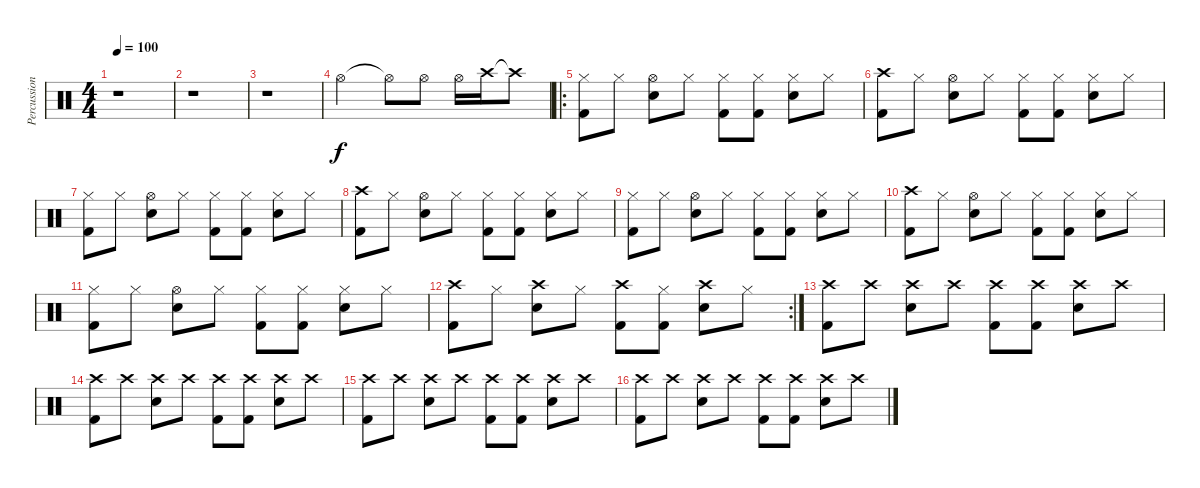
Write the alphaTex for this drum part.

\track ("Percussions" "Percussion") {instrument percussion}
\staff {score}
\articulation defaults
\ts (4 4)
\tempo 100
\clef neutral
\ks c
r.1{dy f} |
r.1 |
r.1 |
"Hi-Hat (open)".2 "Hi-Hat (open)"{t}.8 "Hi-Hat (open)".8 "Hi-Hat (open)".16 "Crash high (hit)".16 "Crash high (hit)"{t}.8 |
\ro
("Hi-Hat (closed)" "Kick (hit) 2").8 "Hi-Hat (closed)".8 ("Hi-Hat (open)" "Snare (hit) 2").8 "Hi-Hat (closed)".8 ("Hi-Hat (closed)" "Kick (hit) 2").8 ("Hi-Hat (closed)" "Kick (hit) 2").8 ("Hi-Hat (closed)" "Snare (hit) 2").8 "Hi-Hat (closed)".8 |
("Crash high (hit)" "Kick (hit) 2").8 "Hi-Hat (closed)".8 ("Hi-Hat (open)" "Snare (hit) 2").8 "Hi-Hat (closed)".8 ("Hi-Hat (closed)" "Kick (hit) 2").8 ("Hi-Hat (closed)" "Kick (hit) 2").8 ("Hi-Hat (closed)" "Snare (hit) 2").8 "Hi-Hat (closed)".8 |
("Hi-Hat (closed)" "Kick (hit) 2").8 "Hi-Hat (closed)".8 ("Hi-Hat (open)" "Snare (hit) 2").8 "Hi-Hat (closed)".8 ("Hi-Hat (closed)" "Kick (hit) 2").8 ("Hi-Hat (closed)" "Kick (hit) 2").8 ("Hi-Hat (closed)" "Snare (hit) 2").8 "Hi-Hat (closed)".8 |
("Crash high (hit)" "Kick (hit) 2").8 "Hi-Hat (closed)".8 ("Hi-Hat (open)" "Snare (hit) 2").8 "Hi-Hat (closed)".8 ("Hi-Hat (closed)" "Kick (hit) 2").8 ("Hi-Hat (closed)" "Kick (hit) 2").8 ("Hi-Hat (closed)" "Snare (hit) 2").8 "Hi-Hat (closed)".8 |
("Hi-Hat (closed)" "Kick (hit) 2").8 "Hi-Hat (closed)".8 ("Hi-Hat (open)" "Snare (hit) 2").8 "Hi-Hat (closed)".8 ("Hi-Hat (closed)" "Kick (hit) 2").8 ("Hi-Hat (closed)" "Kick (hit) 2").8 ("Hi-Hat (closed)" "Snare (hit) 2").8 "Hi-Hat (closed)".8 |
("Crash high (hit)" "Kick (hit) 2").8 "Hi-Hat (closed)".8 ("Hi-Hat (open)" "Snare (hit) 2").8 "Hi-Hat (closed)".8 ("Hi-Hat (closed)" "Kick (hit) 2").8 ("Hi-Hat (closed)" "Kick (hit) 2").8 ("Hi-Hat (closed)" "Snare (hit) 2").8 "Hi-Hat (closed)".8 |
("Hi-Hat (closed)" "Kick (hit) 2").8 "Hi-Hat (closed)".8 ("Hi-Hat (open)" "Snare (hit) 2").8 "Hi-Hat (closed)".8 ("Hi-Hat (closed)" "Kick (hit) 2").8 ("Hi-Hat (closed)" "Kick (hit) 2").8 ("Hi-Hat (closed)" "Snare (hit) 2").8 "Hi-Hat (closed)".8 |
\rc 2
("Crash high (hit)" "Kick (hit) 2").8 "Hi-Hat (closed)".8 ("Crash high (hit)" "Snare (hit) 2").8 "Hi-Hat (closed)".8 ("Crash high (hit)" "Kick (hit) 2").8 ("Hi-Hat (closed)" "Kick (hit) 2").8 ("Crash high (hit)" "Snare (hit) 2").8 "Hi-Hat (closed)".8 |
("Crash high (hit)" "Kick (hit) 2").8 "Crash high (hit)".8 ("Crash high (hit)" "Snare (hit) 2").8 "Crash high (hit)".8 ("Crash high (hit)" "Kick (hit) 2").8 ("Crash high (hit)" "Kick (hit) 2").8 ("Crash high (hit)" "Snare (hit) 2").8 "Crash high (hit)".8 |
("Crash high (hit)" "Kick (hit) 2").8 "Crash high (hit)".8 ("Crash high (hit)" "Snare (hit) 2").8 "Crash high (hit)".8 ("Crash high (hit)" "Kick (hit) 2").8 ("Crash high (hit)" "Kick (hit) 2").8 ("Crash high (hit)" "Snare (hit) 2").8 "Crash high (hit)".8 |
("Crash high (hit)" "Kick (hit) 2").8 "Crash high (hit)".8 ("Crash high (hit)" "Snare (hit) 2").8 "Crash high (hit)".8 ("Crash high (hit)" "Kick (hit) 2").8 ("Crash high (hit)" "Kick (hit) 2").8 ("Crash high (hit)" "Snare (hit) 2").8 "Crash high (hit)".8 |
("Crash high (hit)" "Kick (hit) 2").8 "Crash high (hit)".8 ("Crash high (hit)" "Snare (hit) 2").8 "Crash high (hit)".8 ("Crash high (hit)" "Kick (hit) 2").8 ("Crash high (hit)" "Kick (hit) 2").8 ("Crash high (hit)" "Snare (hit) 2").8 "Crash high (hit)".8
